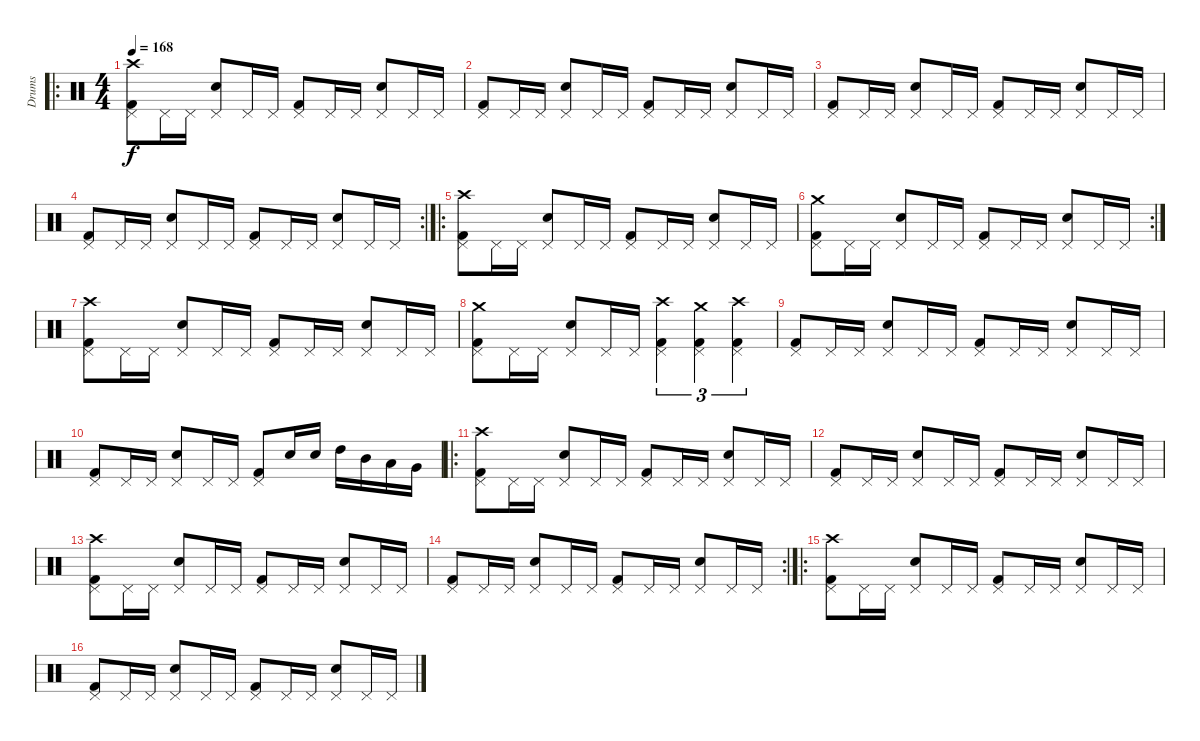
\track ("Drums" "Drums") {instrument percussion}
\staff {score}
\articulation defaults
\ro
\ts (4 4)
\tempo 168
\clef neutral
\ks c
("Kick (hit) 2" "Pedal Hi-Hat (hit)" "Crash high (hit)").8{dy f} "Pedal Hi-Hat (hit)".16 "Pedal Hi-Hat (hit)".16 ("Snare (hit) 2" "Pedal Hi-Hat (hit)").8 "Pedal Hi-Hat (hit)".16 "Pedal Hi-Hat (hit)".16 ("Kick (hit) 2" "Pedal Hi-Hat (hit)").8 "Pedal Hi-Hat (hit)".16 "Pedal Hi-Hat (hit)".16 ("Snare (hit) 2" "Pedal Hi-Hat (hit)").8 "Pedal Hi-Hat (hit)".16 "Pedal Hi-Hat (hit)".16 |
("Kick (hit) 2" "Pedal Hi-Hat (hit)").8 "Pedal Hi-Hat (hit)".16 "Pedal Hi-Hat (hit)".16 ("Snare (hit) 2" "Pedal Hi-Hat (hit)").8 "Pedal Hi-Hat (hit)".16 "Pedal Hi-Hat (hit)".16 ("Kick (hit) 2" "Pedal Hi-Hat (hit)").8 "Pedal Hi-Hat (hit)".16 "Pedal Hi-Hat (hit)".16 ("Snare (hit) 2" "Pedal Hi-Hat (hit)").8 "Pedal Hi-Hat (hit)".16 "Pedal Hi-Hat (hit)".16 |
("Kick (hit) 2" "Pedal Hi-Hat (hit)").8 "Pedal Hi-Hat (hit)".16 "Pedal Hi-Hat (hit)".16 ("Snare (hit) 2" "Pedal Hi-Hat (hit)").8 "Pedal Hi-Hat (hit)".16 "Pedal Hi-Hat (hit)".16 ("Kick (hit) 2" "Pedal Hi-Hat (hit)").8 "Pedal Hi-Hat (hit)".16 "Pedal Hi-Hat (hit)".16 ("Snare (hit) 2" "Pedal Hi-Hat (hit)").8 "Pedal Hi-Hat (hit)".16 "Pedal Hi-Hat (hit)".16 |
\rc 2
("Kick (hit) 2" "Pedal Hi-Hat (hit)").8 "Pedal Hi-Hat (hit)".16 "Pedal Hi-Hat (hit)".16 ("Snare (hit) 2" "Pedal Hi-Hat (hit)").8 "Pedal Hi-Hat (hit)".16 "Pedal Hi-Hat (hit)".16 ("Kick (hit) 2" "Pedal Hi-Hat (hit)").8 "Pedal Hi-Hat (hit)".16 "Pedal Hi-Hat (hit)".16 ("Snare (hit) 2" "Pedal Hi-Hat (hit)").8 "Pedal Hi-Hat (hit)".16 "Pedal Hi-Hat (hit)".16 |
\ro
("Kick (hit) 2" "Pedal Hi-Hat (hit)" "Crash high (hit)").8 "Pedal Hi-Hat (hit)".16 "Pedal Hi-Hat (hit)".16 ("Snare (hit) 2" "Pedal Hi-Hat (hit)").8 "Pedal Hi-Hat (hit)".16 "Pedal Hi-Hat (hit)".16 ("Kick (hit) 2" "Pedal Hi-Hat (hit)").8 "Pedal Hi-Hat (hit)".16 "Pedal Hi-Hat (hit)".16 ("Snare (hit) 2" "Pedal Hi-Hat (hit)").8 "Pedal Hi-Hat (hit)".16 "Pedal Hi-Hat (hit)".16 |
\rc 2
("Kick (hit) 2" "Pedal Hi-Hat (hit)" "Crash medium (hit)").8 "Pedal Hi-Hat (hit)".16 "Pedal Hi-Hat (hit)".16 ("Snare (hit) 2" "Pedal Hi-Hat (hit)").8 "Pedal Hi-Hat (hit)".16 "Pedal Hi-Hat (hit)".16 ("Kick (hit) 2" "Pedal Hi-Hat (hit)").8 "Pedal Hi-Hat (hit)".16 "Pedal Hi-Hat (hit)".16 ("Snare (hit) 2" "Pedal Hi-Hat (hit)").8 "Pedal Hi-Hat (hit)".16 "Pedal Hi-Hat (hit)".16 |
("Kick (hit) 2" "Pedal Hi-Hat (hit)" "Crash high (hit)").8 "Pedal Hi-Hat (hit)".16 "Pedal Hi-Hat (hit)".16 ("Snare (hit) 2" "Pedal Hi-Hat (hit)").8 "Pedal Hi-Hat (hit)".16 "Pedal Hi-Hat (hit)".16 ("Kick (hit) 2" "Pedal Hi-Hat (hit)").8 "Pedal Hi-Hat (hit)".16 "Pedal Hi-Hat (hit)".16 ("Snare (hit) 2" "Pedal Hi-Hat (hit)").8 "Pedal Hi-Hat (hit)".16 "Pedal Hi-Hat (hit)".16 |
("Kick (hit) 2" "Pedal Hi-Hat (hit)" "Crash medium (hit)").8 "Pedal Hi-Hat (hit)".16 "Pedal Hi-Hat (hit)".16 ("Snare (hit) 2" "Pedal Hi-Hat (hit)").8 "Pedal Hi-Hat (hit)".16 "Pedal Hi-Hat (hit)".16 ("Kick (hit) 2" "Pedal Hi-Hat (hit)" "Crash high (hit)").4{tu (3 2)} ("Kick (hit) 2" "Pedal Hi-Hat (hit)" "Crash medium (hit)").4{tu (3 2)} ("Kick (hit) 2" "Pedal Hi-Hat (hit)" "Crash high (hit)").4{tu (3 2)} |
("Kick (hit) 2" "Pedal Hi-Hat (hit)").8 "Pedal Hi-Hat (hit)".16 "Pedal Hi-Hat (hit)".16 ("Snare (hit) 2" "Pedal Hi-Hat (hit)").8 "Pedal Hi-Hat (hit)".16 "Pedal Hi-Hat (hit)".16 ("Kick (hit) 2" "Pedal Hi-Hat (hit)").8 "Pedal Hi-Hat (hit)".16 "Pedal Hi-Hat (hit)".16 ("Snare (hit) 2" "Pedal Hi-Hat (hit)").8 "Pedal Hi-Hat (hit)".16 "Pedal Hi-Hat (hit)".16 |
("Kick (hit) 2" "Pedal Hi-Hat (hit)").8 "Pedal Hi-Hat (hit)".16 "Pedal Hi-Hat (hit)".16 ("Snare (hit) 2" "Pedal Hi-Hat (hit)").8 "Pedal Hi-Hat (hit)".16 "Pedal Hi-Hat (hit)".16 ("Kick (hit) 2" "Pedal Hi-Hat (hit)").8 "Snare (hit) 2".16 "Snare (hit) 2".16 "High Tom (hit)".16 "Mid Tom (hit)".16 "Low Tom (hit)".16 "Very Low Tom (hit)".16 |
\ro
("Kick (hit) 2" "Pedal Hi-Hat (hit)" "Crash high (hit)").8 "Pedal Hi-Hat (hit)".16 "Pedal Hi-Hat (hit)".16 ("Snare (hit) 2" "Pedal Hi-Hat (hit)").8 "Pedal Hi-Hat (hit)".16 "Pedal Hi-Hat (hit)".16 ("Kick (hit) 2" "Pedal Hi-Hat (hit)").8 "Pedal Hi-Hat (hit)".16 "Pedal Hi-Hat (hit)".16 ("Snare (hit) 2" "Pedal Hi-Hat (hit)").8 "Pedal Hi-Hat (hit)".16 "Pedal Hi-Hat (hit)".16 |
("Kick (hit) 2" "Pedal Hi-Hat (hit)").8 "Pedal Hi-Hat (hit)".16 "Pedal Hi-Hat (hit)".16 ("Snare (hit) 2" "Pedal Hi-Hat (hit)").8 "Pedal Hi-Hat (hit)".16 "Pedal Hi-Hat (hit)".16 ("Kick (hit) 2" "Pedal Hi-Hat (hit)").8 "Pedal Hi-Hat (hit)".16 "Pedal Hi-Hat (hit)".16 ("Snare (hit) 2" "Pedal Hi-Hat (hit)").8 "Pedal Hi-Hat (hit)".16 "Pedal Hi-Hat (hit)".16 |
("Kick (hit) 2" "Pedal Hi-Hat (hit)" "Crash high (hit)").8 "Pedal Hi-Hat (hit)".16 "Pedal Hi-Hat (hit)".16 ("Snare (hit) 2" "Pedal Hi-Hat (hit)").8 "Pedal Hi-Hat (hit)".16 "Pedal Hi-Hat (hit)".16 ("Kick (hit) 2" "Pedal Hi-Hat (hit)").8 "Pedal Hi-Hat (hit)".16 "Pedal Hi-Hat (hit)".16 ("Snare (hit) 2" "Pedal Hi-Hat (hit)").8 "Pedal Hi-Hat (hit)".16 "Pedal Hi-Hat (hit)".16 |
\rc 2
("Kick (hit) 2" "Pedal Hi-Hat (hit)").8 "Pedal Hi-Hat (hit)".16 "Pedal Hi-Hat (hit)".16 ("Snare (hit) 2" "Pedal Hi-Hat (hit)").8 "Pedal Hi-Hat (hit)".16 "Pedal Hi-Hat (hit)".16 ("Kick (hit) 2" "Pedal Hi-Hat (hit)").8 "Pedal Hi-Hat (hit)".16 "Pedal Hi-Hat (hit)".16 ("Snare (hit) 2" "Pedal Hi-Hat (hit)").8 "Pedal Hi-Hat (hit)".16 "Pedal Hi-Hat (hit)".16 |
\ro
("Kick (hit) 2" "Pedal Hi-Hat (hit)" "Crash high (hit)").8 "Pedal Hi-Hat (hit)".16 "Pedal Hi-Hat (hit)".16 ("Snare (hit) 2" "Pedal Hi-Hat (hit)").8 "Pedal Hi-Hat (hit)".16 "Pedal Hi-Hat (hit)".16 ("Kick (hit) 2" "Pedal Hi-Hat (hit)").8 "Pedal Hi-Hat (hit)".16 "Pedal Hi-Hat (hit)".16 ("Snare (hit) 2" "Pedal Hi-Hat (hit)").8 "Pedal Hi-Hat (hit)".16 "Pedal Hi-Hat (hit)".16 |
("Kick (hit) 2" "Pedal Hi-Hat (hit)").8 "Pedal Hi-Hat (hit)".16 "Pedal Hi-Hat (hit)".16 ("Snare (hit) 2" "Pedal Hi-Hat (hit)").8 "Pedal Hi-Hat (hit)".16 "Pedal Hi-Hat (hit)".16 ("Kick (hit) 2" "Pedal Hi-Hat (hit)").8 "Pedal Hi-Hat (hit)".16 "Pedal Hi-Hat (hit)".16 ("Snare (hit) 2" "Pedal Hi-Hat (hit)").8 "Pedal Hi-Hat (hit)".16 "Pedal Hi-Hat (hit)".16
